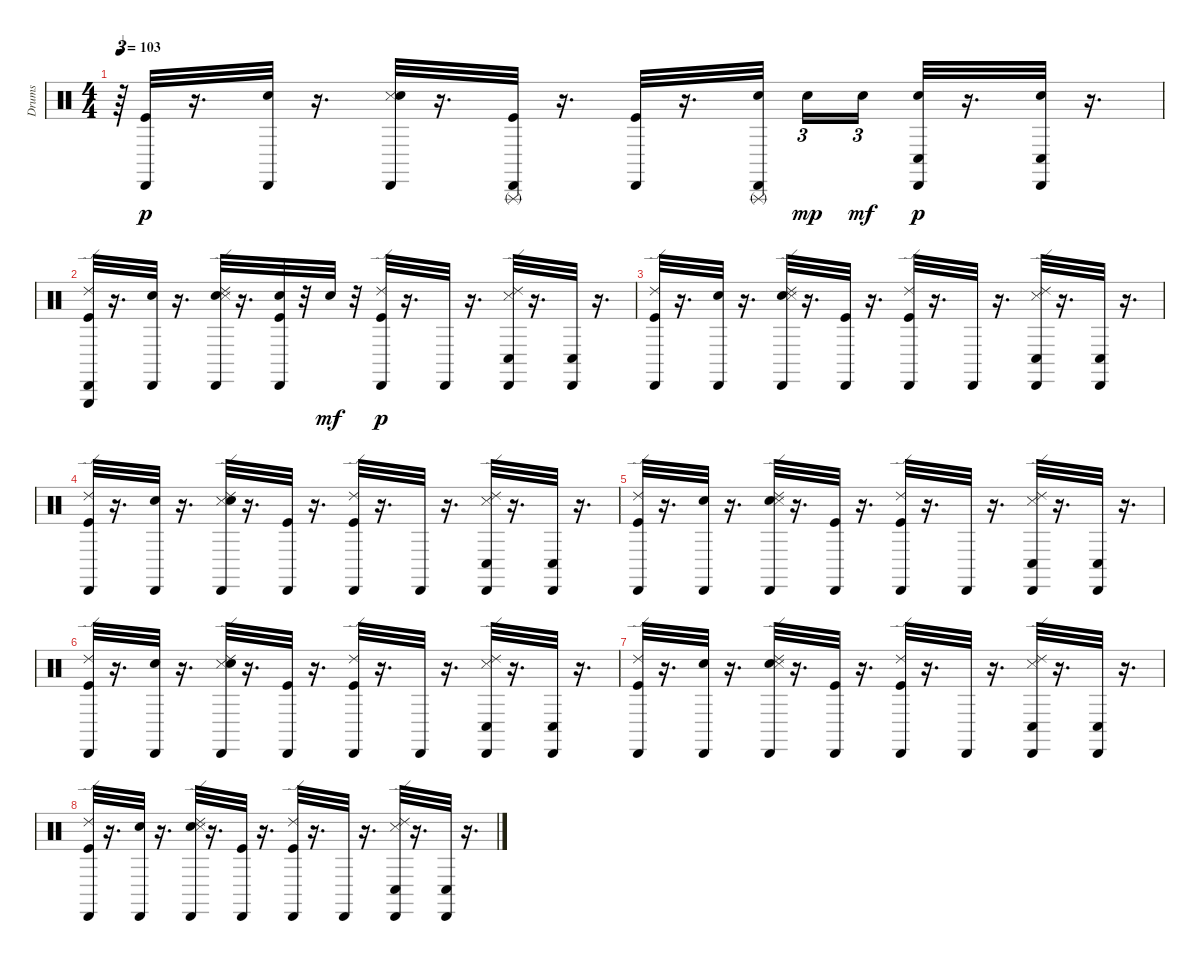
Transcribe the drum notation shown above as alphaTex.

\track ("Drums" "Drums") {instrument percussion}
\staff {score}
\articulation defaults
\ts (4 4)
\tempo 103
\clef neutral
\ks c
r.64{tu (3 2) dy p} ("Kick (hit)" "Cabasa (hit)").32 r.16{d} ("Snare (hit) 2" "Cabasa (hit)").32 r.16{d} ("Snare (side stick) 3" "Snare (hit) 2" "Cabasa (hit)").32 r.16{d} ("Kick (hit)" "Cabasa (hit)" "Triangle (rnute)").32 r.16{d} ("Kick (hit)" "Cabasa (hit)").32 r.16{d} ("Triangle (rnute)" "Snare (hit) 2" "Cabasa (hit)").32 "Snare (hit) 2".16{tu (3 2) dy mp} "Snare (hit) 2".16{tu (3 2) dy mf} ("Conga low (hit)" "Hand Clap (hit)" "Cabasa (hit)").32{dy p} r.16{d} ("Conga low (hit)" "Snare (hit) 2" "Cabasa (hit)").32 r.16{d} |
("Ride (edge) 2" "Kick (hit)" "Triangle (hit)" "Cabasa (hit)").32 r.16{d} ("Snare (hit) 2" "Cabasa (hit)").32 r.16{d} ("Snare (hit) 2" "Ride (edge) 2" "Snare (side stick) 3" "Cabasa (hit)").32 r.16{d} ("Snare (hit) 2" "Kick (hit)" "Cabasa (hit)").32 r.32 "Snare (hit) 2".32{dy mf} r.32 ("Ride (edge) 2" "Kick (hit)" "Cabasa (hit)").32{dy p} r.16{d} "Cabasa (hit)".32 r.16{d} ("Conga low (hit)" "Snare (side stick) 3" "Ride (edge) 2" "Cabasa (hit)").32 r.16{d} ("Conga low (hit)" "Cabasa (hit)").32 r.16{d} |
("Ride (edge) 2" "Kick (hit)" "Cabasa (hit)").32 r.16{d} ("Snare (hit) 2" "Cabasa (hit)").32 r.16{d} ("Ride (edge) 2" "Snare (hit) 2" "Snare (side stick) 3" "Cabasa (hit)").32 r.16{d} ("Kick (hit)" "Cabasa (hit)").32 r.16{d} ("Kick (hit)" "Ride (edge) 2" "Cabasa (hit)").32 r.16{d} "Cabasa (hit)".32 r.16{d} ("Conga low (hit)" "Ride (edge) 2" "Snare (side stick) 3" "Cabasa (hit)").32 r.16{d} ("Conga low (hit)" "Cabasa (hit)").32 r.16{d} |
("Kick (hit)" "Ride (edge) 2" "Cabasa (hit)").32 r.16{d} ("Snare (hit) 2" "Cabasa (hit)").32 r.16{d} ("Snare (side stick) 3" "Ride (edge) 2" "Snare (hit) 2" "Cabasa (hit)").32 r.16{d} ("Kick (hit)" "Cabasa (hit)").32 r.16{d} ("Kick (hit)" "Ride (edge) 2" "Cabasa (hit)").32 r.16{d} "Cabasa (hit)".32 r.16{d} ("Snare (side stick) 3" "Ride (edge) 2" "Conga low (hit)" "Cabasa (hit)").32 r.16{d} ("Conga low (hit)" "Cabasa (hit)").32 r.16{d} |
("Ride (edge) 2" "Kick (hit)" "Cabasa (hit)").32 r.16{d} ("Snare (hit) 2" "Cabasa (hit)").32 r.16{d} ("Snare (hit) 2" "Ride (edge) 2" "Snare (side stick) 3" "Cabasa (hit)").32 r.16{d} ("Kick (hit)" "Cabasa (hit)").32 r.16{d} ("Ride (edge) 2" "Kick (hit)" "Cabasa (hit)").32 r.16{d} "Cabasa (hit)".32 r.16{d} ("Ride (edge) 2" "Snare (side stick) 3" "Conga low (hit)" "Cabasa (hit)").32 r.16{d} ("Conga low (hit)" "Cabasa (hit)").32 r.16{d} |
("Ride (edge) 2" "Kick (hit)" "Cabasa (hit)").32 r.16{d} ("Snare (hit) 2" "Cabasa (hit)").32 r.16{d} ("Snare (side stick) 3" "Snare (hit) 2" "Ride (edge) 2" "Cabasa (hit)").32 r.16{d} ("Kick (hit)" "Cabasa (hit)").32 r.16{d} ("Ride (edge) 2" "Kick (hit)" "Cabasa (hit)").32 r.16{d} "Cabasa (hit)".32 r.16{d} ("Ride (edge) 2" "Conga low (hit)" "Snare (side stick) 3" "Cabasa (hit)").32 r.16{d} ("Conga low (hit)" "Cabasa (hit)").32 r.16{d} |
("Kick (hit)" "Ride (edge) 2" "Cabasa (hit)").32 r.16{d} ("Snare (hit) 2" "Cabasa (hit)").32 r.16{d} ("Ride (edge) 2" "Snare (hit) 2" "Snare (side stick) 3" "Cabasa (hit)").32 r.16{d} ("Kick (hit)" "Cabasa (hit)").32 r.16{d} ("Kick (hit)" "Ride (edge) 2" "Cabasa (hit)").32 r.16{d} "Cabasa (hit)".32 r.16{d} ("Conga low (hit)" "Snare (side stick) 3" "Ride (edge) 2" "Cabasa (hit)").32 r.16{d} ("Conga low (hit)" "Cabasa (hit)").32 r.16{d} |
("Ride (edge) 2" "Kick (hit)" "Cabasa (hit)").32 r.16{d} ("Snare (hit) 2" "Cabasa (hit)").32 r.16{d} ("Snare (hit) 2" "Snare (side stick) 3" "Ride (edge) 2" "Cabasa (hit)").32 r.16{d} ("Kick (hit)" "Cabasa (hit)").32 r.16{d} ("Ride (edge) 2" "Kick (hit)" "Cabasa (hit)").32 r.16{d} "Cabasa (hit)".32 r.16{d} ("Conga low (hit)" "Ride (edge) 2" "Snare (side stick) 3" "Cabasa (hit)").32 r.16{d} ("Conga low (hit)" "Cabasa (hit)").32 r.16{d}
